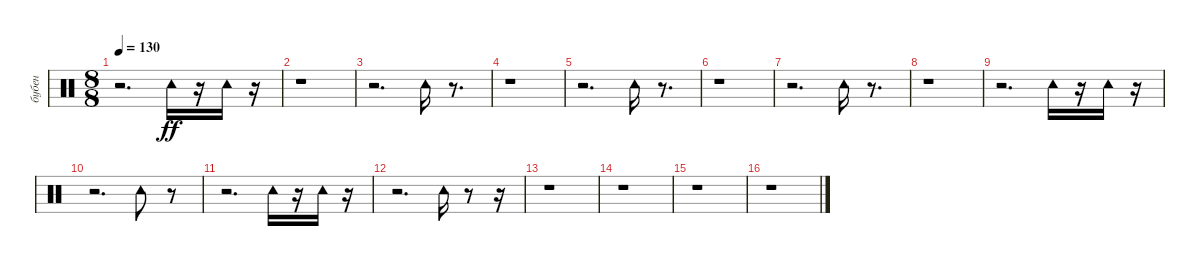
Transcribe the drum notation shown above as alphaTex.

\track ("бубен" "бубен") {instrument percussion}
\staff {score}
\articulation defaults
\ts (8 8)
\tempo 130
\clef neutral
\ks c
r.2{d dy ff} "Tambourine (hit)".16 r.16 "Tambourine (hit)".16 r.16 |
r.1 |
r.2{d} "Tambourine (hit)".16 r.8{d} |
r.1 |
r.2{d} "Tambourine (hit)".16 r.8{d} |
r.1 |
r.2{d} "Tambourine (hit)".16 r.8{d} |
r.1 |
r.2{d} "Tambourine (hit)".16 r.16 "Tambourine (hit)".16 r.16 |
r.2{d} "Tambourine (hit)".8 r.8 |
r.2{d} "Tambourine (hit)".16 r.16 "Tambourine (hit)".16 r.16 |
r.2{d} "Tambourine (hit)".16 r.8 r.16 |
r.1 |
r.1 |
r.1 |
r.1
